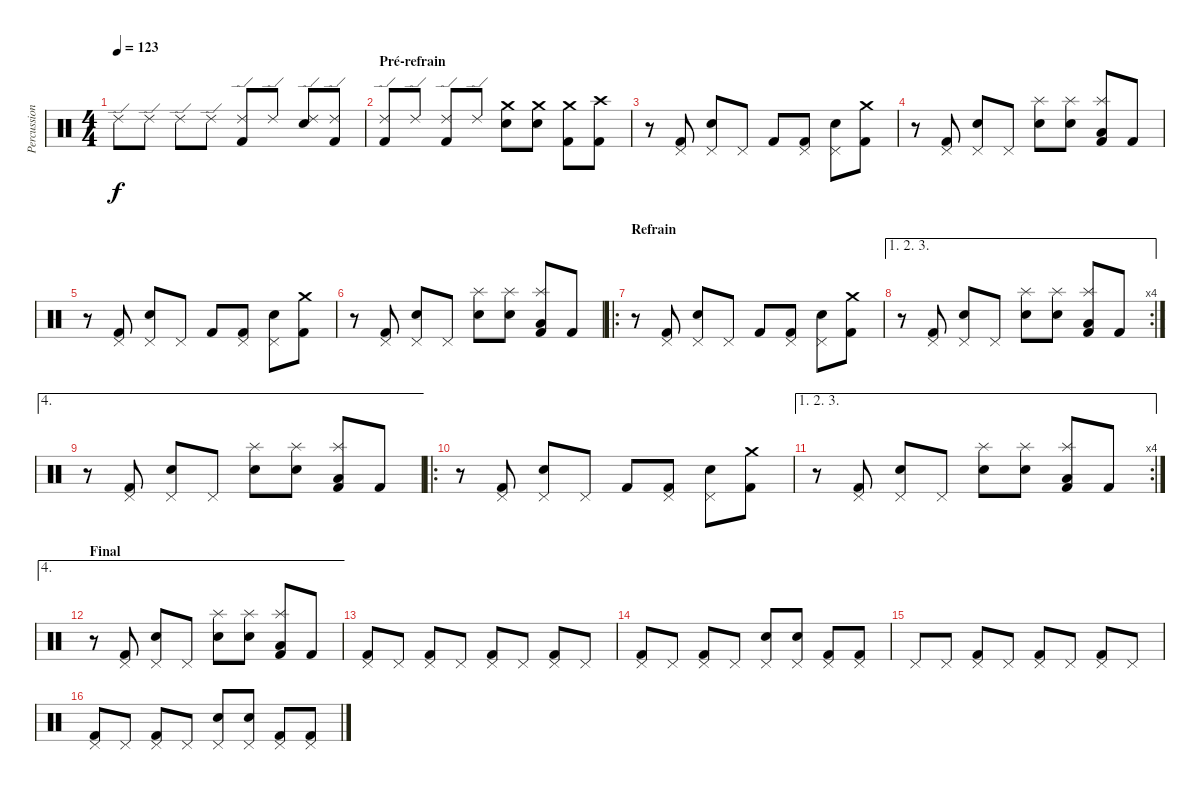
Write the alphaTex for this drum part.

\track ("Percussions" "Percussion") {instrument percussion}
\staff {score}
\articulation defaults
\ts (4 4)
\tempo 123
\clef neutral
\ks c "Ride (edge) 2".8{dy f} "Ride (edge) 2".8 "Ride (edge) 2".8 "Ride (edge) 2".8
("Ride (edge) 2" "Kick (hit) 2").8 "Ride (edge) 2".8 ("Ride (edge) 2" "Electric Snare (hit)").8 ("Ride (edge) 2" "Kick (hit) 2").8 |
\section ("" "Pré-refrain")
("Ride (edge) 2" "Kick (hit) 2").8 "Ride (edge) 2".8 ("Ride (edge) 2" "Kick (hit) 2").8 "Ride (edge) 2".8 ("Crash medium (hit)" "Electric Snare (hit)").8 ("Crash medium (hit)" "Electric Snare (hit)").8 ("Crash medium (hit)" "Kick (hit) 2").8 ("Crash high (hit)" "Kick (hit) 2").8 |
r.8 ("Pedal Hi-Hat (hit)" "Kick (hit) 2").8 ("Pedal Hi-Hat (hit)" "Electric Snare (hit)").8 "Pedal Hi-Hat (hit)".8 "Kick (hit) 2".8 ("Pedal Hi-Hat (hit)" "Kick (hit) 2").8 ("Pedal Hi-Hat (hit)" "Electric Snare (hit)").8 ("Crash medium (hit)" "Kick (hit) 2").8 |
r.8 ("Pedal Hi-Hat (hit)" "Kick (hit) 2").8 ("Pedal Hi-Hat (hit)" "Electric Snare (hit)").8 "Pedal Hi-Hat (hit)".8 ("Splash (hit)" "Electric Snare (hit)").8 ("Splash (hit)" "Electric Snare (hit)").8 ("Splash (hit)" "Low Tom (hit)" "Kick (hit) 2").8 "Kick (hit) 2".8 |
r.8 ("Pedal Hi-Hat (hit)" "Kick (hit) 2").8 ("Pedal Hi-Hat (hit)" "Electric Snare (hit)").8 "Pedal Hi-Hat (hit)".8 "Kick (hit) 2".8 ("Pedal Hi-Hat (hit)" "Kick (hit) 2").8 ("Pedal Hi-Hat (hit)" "Electric Snare (hit)").8 ("Crash medium (hit)" "Kick (hit) 2").8 |
r.8 ("Pedal Hi-Hat (hit)" "Kick (hit) 2").8 ("Pedal Hi-Hat (hit)" "Electric Snare (hit)").8 "Pedal Hi-Hat (hit)".8 ("Splash (hit)" "Electric Snare (hit)").8 ("Splash (hit)" "Electric Snare (hit)").8 ("Splash (hit)" "Low Tom (hit)" "Kick (hit) 2").8 "Kick (hit) 2".8 |
\ro
\section ("" "Refrain")
r.8 ("Pedal Hi-Hat (hit)" "Kick (hit) 2").8 ("Pedal Hi-Hat (hit)" "Electric Snare (hit)").8 "Pedal Hi-Hat (hit)".8 "Kick (hit) 2".8 ("Pedal Hi-Hat (hit)" "Kick (hit) 2").8 ("Pedal Hi-Hat (hit)" "Electric Snare (hit)").8 ("Crash medium (hit)" "Kick (hit) 2").8 |
\ae (1 2 3)
\rc 4
r.8 ("Pedal Hi-Hat (hit)" "Kick (hit) 2").8 ("Pedal Hi-Hat (hit)" "Electric Snare (hit)").8 "Pedal Hi-Hat (hit)".8 ("Splash (hit)" "Electric Snare (hit)").8 ("Splash (hit)" "Electric Snare (hit)").8 ("Splash (hit)" "Low Tom (hit)" "Kick (hit) 2").8 "Kick (hit) 2".8 |
\ae 4
r.8 ("Pedal Hi-Hat (hit)" "Kick (hit) 2").8 ("Pedal Hi-Hat (hit)" "Electric Snare (hit)").8 "Pedal Hi-Hat (hit)".8 ("Splash (hit)" "Electric Snare (hit)").8 ("Splash (hit)" "Electric Snare (hit)").8 ("Splash (hit)" "Low Tom (hit)" "Kick (hit) 2").8 "Kick (hit) 2".8 |
\ro
r.8 ("Pedal Hi-Hat (hit)" "Kick (hit) 2").8 ("Pedal Hi-Hat (hit)" "Electric Snare (hit)").8 "Pedal Hi-Hat (hit)".8 "Kick (hit) 2".8 ("Pedal Hi-Hat (hit)" "Kick (hit) 2").8 ("Pedal Hi-Hat (hit)" "Electric Snare (hit)").8 ("Crash medium (hit)" "Kick (hit) 2").8 |
\ae (1 2 3)
\rc 4
r.8 ("Pedal Hi-Hat (hit)" "Kick (hit) 2").8 ("Pedal Hi-Hat (hit)" "Electric Snare (hit)").8 "Pedal Hi-Hat (hit)".8 ("Splash (hit)" "Electric Snare (hit)").8 ("Splash (hit)" "Electric Snare (hit)").8 ("Splash (hit)" "Low Tom (hit)" "Kick (hit) 2").8 "Kick (hit) 2".8 |
\ae 4
\section ("" "Final")
r.8 ("Pedal Hi-Hat (hit)" "Kick (hit) 2").8 ("Pedal Hi-Hat (hit)" "Electric Snare (hit)").8 "Pedal Hi-Hat (hit)".8 ("Splash (hit)" "Electric Snare (hit)").8 ("Splash (hit)" "Electric Snare (hit)").8 ("Splash (hit)" "Low Tom (hit)" "Kick (hit) 2").8 "Kick (hit) 2".8 |
("Pedal Hi-Hat (hit)" "Kick (hit) 2").8 "Pedal Hi-Hat (hit)".8 ("Pedal Hi-Hat (hit)" "Kick (hit) 2").8 "Pedal Hi-Hat (hit)".8 ("Pedal Hi-Hat (hit)" "Kick (hit) 2").8 "Pedal Hi-Hat (hit)".8 ("Pedal Hi-Hat (hit)" "Kick (hit) 2").8 "Pedal Hi-Hat (hit)".8 |
("Pedal Hi-Hat (hit)" "Kick (hit) 2").8 "Pedal Hi-Hat (hit)".8 ("Pedal Hi-Hat (hit)" "Kick (hit) 2").8 "Pedal Hi-Hat (hit)".8 ("Pedal Hi-Hat (hit)" "Electric Snare (hit)").8 ("Pedal Hi-Hat (hit)" "Electric Snare (hit)").8 ("Pedal Hi-Hat (hit)" "Kick (hit) 2").8 ("Pedal Hi-Hat (hit)" "Kick (hit) 2").8 |
"Pedal Hi-Hat (hit)".8 "Pedal Hi-Hat (hit)".8 ("Pedal Hi-Hat (hit)" "Kick (hit) 2").8 "Pedal Hi-Hat (hit)".8 ("Pedal Hi-Hat (hit)" "Kick (hit) 2").8 "Pedal Hi-Hat (hit)".8 ("Pedal Hi-Hat (hit)" "Kick (hit) 2").8 "Pedal Hi-Hat (hit)".8 |
("Pedal Hi-Hat (hit)" "Kick (hit) 2").8 "Pedal Hi-Hat (hit)".8 ("Pedal Hi-Hat (hit)" "Kick (hit) 2").8 "Pedal Hi-Hat (hit)".8 ("Pedal Hi-Hat (hit)" "Electric Snare (hit)").8 ("Pedal Hi-Hat (hit)" "Electric Snare (hit)").8 ("Pedal Hi-Hat (hit)" "Kick (hit) 2").8 ("Pedal Hi-Hat (hit)" "Kick (hit) 2").8
